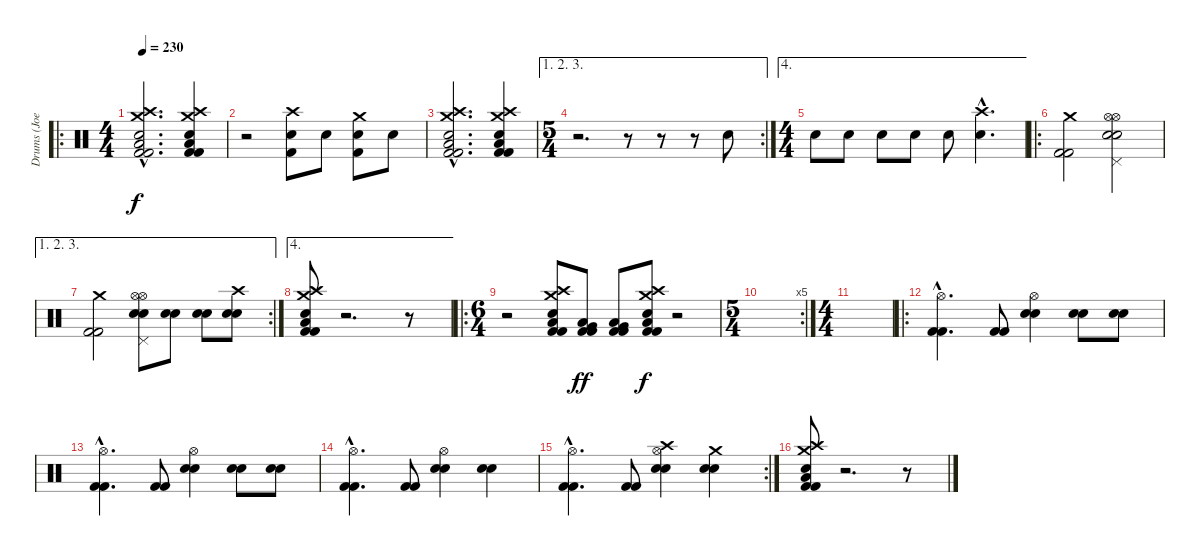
\track ("Drums (Joey?)" "Drums (Joe") {instrument percussion}
\staff {score}
\articulation defaults
\ro
\ts (4 4)
\tempo 230
\clef neutral
\ks c
("Low Floor Tom (hit)"{hac} "Crash high (hit)"{hac} "Crash medium (hit)"{hac} "Electric Snare (hit)"{hac} "Kick (hit) 2"{hac} "Kick (hit) 2"{hac}).2{d dy f} ("Low Floor Tom (hit)" "Crash high (hit)" "Crash medium (hit)" "Electric Snare (hit)" "Kick (hit) 2" "Kick (hit) 2").4 |
r.2 ("Crash high (hit)" "Electric Snare (hit)" "Kick (hit) 2").8 "Electric Snare (hit)".8 ("Crash medium (hit)" "Electric Snare (hit)" "Kick (hit) 2").8 "Electric Snare (hit)".8 |
("Low Floor Tom (hit)"{hac} "Crash high (hit)"{hac} "Crash medium (hit)"{hac} "Electric Snare (hit)"{hac} "Kick (hit) 2"{hac} "Kick (hit) 2"{hac}).2{d} ("Low Floor Tom (hit)" "Crash high (hit)" "Crash medium (hit)" "Electric Snare (hit)" "Kick (hit) 2" "Kick (hit) 2").4 |
\ae (1 2 3)
\rc 2
\ts (5 4)
r.2{d} r.8 r.8 r.8 "Electric Snare (hit)".8 |
\ae 4
\ts (4 4)
"Electric Snare (hit)".8 "Electric Snare (hit)".8 "Electric Snare (hit)".8 "Electric Snare (hit)".8 "Electric Snare (hit)".8 ("Crash high (hit)"{hac} "Electric Snare (hit)"{hac}).4{d} |
\ro
("Crash medium (hit)" "Kick (hit) 2" "Kick (hit) 2").2 ("Pedal Hi-Hat (hit)" "Hi-Hat (open)" "Hi-Hat (open)" "Electric Snare (hit)" "Electric Snare (hit)").2 |
\ae (1 2 3)
\rc 2
("Crash medium (hit)" "Kick (hit) 2" "Kick (hit) 2").2 ("Pedal Hi-Hat (hit)" "Hi-Hat (open)" "Hi-Hat (open)" "Electric Snare (hit)" "Electric Snare (hit)").8 ("Electric Snare (hit)" "Electric Snare (hit)").8 ("Electric Snare (hit)" "Electric Snare (hit)").8 ("Crash high (hit)" "Electric Snare (hit)" "Electric Snare (hit)").8 |
\ae 4
("Low Floor Tom (hit)" "Electric Snare (hit)" "Crash medium (hit)" "Crash high (hit)" "Kick (hit) 2" "Kick (hit) 2").8 r.2{d} r.8 |
\ro
\ts (6 4)
r.2 ("Crash medium (hit)" "Crash high (hit)" "Electric Snare (hit)" "Kick (hit) 2" "Low Floor Tom (hit)" "Kick (hit) 2").8 ("Very Low Tom (hit)" "Low Floor Tom (hit)" "Kick (hit) 2" "Kick (hit) 2").8{dy ff} ("Very Low Tom (hit)" "Low Floor Tom (hit)" "Kick (hit) 2" "Kick (hit) 2").8 ("Crash medium (hit)" "Crash high (hit)" "Electric Snare (hit)" "Kick (hit) 2" "Low Floor Tom (hit)" "Kick (hit) 2").8{dy f} r.2 |
\rc 5
\ts (5 4)
|
\ts (4 4)
|
\ro
("Hi-Hat (open)"{hac} "Kick (hit) 2"{hac} "Kick (hit) 2"{hac}).4{d} ("Kick (hit) 2" "Kick (hit) 2").8 ("Electric Snare (hit)" "Electric Snare (hit)" "Hi-Hat (open)").4 ("Electric Snare (hit)" "Electric Snare (hit)").8 ("Electric Snare (hit)" "Electric Snare (hit)").8 |
("Hi-Hat (open)"{hac} "Kick (hit) 2"{hac} "Kick (hit) 2"{hac}).4{d} ("Kick (hit) 2" "Kick (hit) 2").8 ("Electric Snare (hit)" "Electric Snare (hit)" "Hi-Hat (open)").4 ("Electric Snare (hit)" "Electric Snare (hit)").8 ("Electric Snare (hit)" "Electric Snare (hit)").8 |
("Hi-Hat (open)"{hac} "Kick (hit) 2"{hac} "Kick (hit) 2"{hac}).4{d} ("Kick (hit) 2" "Kick (hit) 2").8 ("Electric Snare (hit)" "Electric Snare (hit)" "Hi-Hat (open)").4 ("Electric Snare (hit)" "Electric Snare (hit)").4 |
\rc 2
("Hi-Hat (open)"{hac} "Kick (hit) 2"{hac} "Kick (hit) 2"{hac}).4{d} ("Kick (hit) 2" "Kick (hit) 2").8 ("Crash high (hit)" "Electric Snare (hit)" "Electric Snare (hit)" "Hi-Hat (open)").4 ("Crash medium (hit)" "Electric Snare (hit)" "Electric Snare (hit)").4 |
("Low Floor Tom (hit)" "Electric Snare (hit)" "Crash medium (hit)" "Crash high (hit)" "Kick (hit) 2" "Kick (hit) 2").8 r.2{d volume 0} r.8{volume 14}
